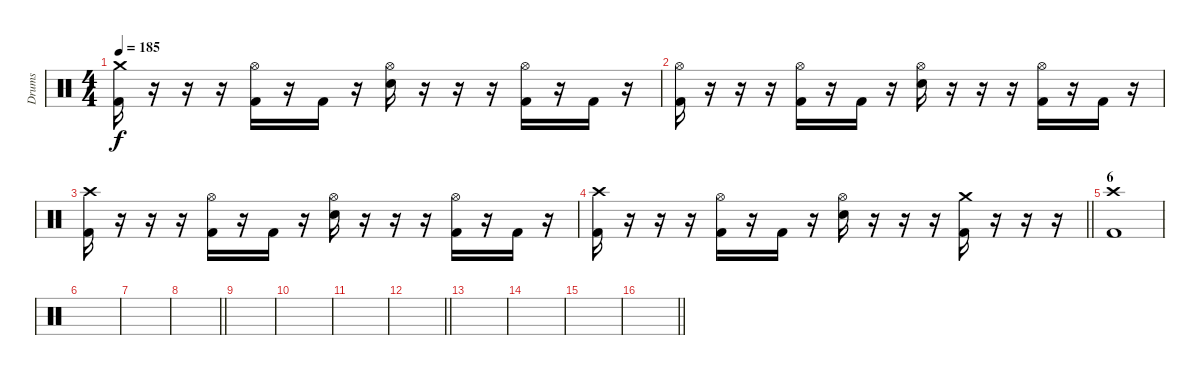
\track ("Drums" "Drums") {instrument percussion}
\staff {score}
\articulation defaults
\ts (4 4)
\tempo 185
\clef neutral
\ks c
("Crash medium (hit)" "Kick (hit) 2").16{dy f} r.16 r.16 r.16 ("Hi-Hat (open)" "Kick (hit) 2").16 r.16 "Kick (hit) 2".16 r.16 ("Hi-Hat (open)" "Electric Snare (hit)").16 r.16 r.16 r.16 ("Hi-Hat (open)" "Kick (hit) 2").16 r.16 "Kick (hit) 2".16 r.16 |
("Hi-Hat (open)" "Kick (hit) 2").16 r.16 r.16 r.16 ("Hi-Hat (open)" "Kick (hit) 2").16 r.16 "Kick (hit) 2".16 r.16 ("Hi-Hat (open)" "Electric Snare (hit)").16 r.16 r.16 r.16 ("Hi-Hat (open)" "Kick (hit) 2").16 r.16 "Kick (hit) 2".16 r.16 |
("Crash high (hit)" "Kick (hit) 2").16 r.16 r.16 r.16 ("Hi-Hat (open)" "Kick (hit) 2").16 r.16 "Kick (hit) 2".16 r.16 ("Hi-Hat (open)" "Electric Snare (hit)").16 r.16 r.16 r.16 ("Hi-Hat (open)" "Kick (hit) 2").16 r.16 "Kick (hit) 2".16 r.16 |
\barLineRight lightlight
("Crash high (hit)" "Kick (hit) 2").16 r.16 r.16 r.16 ("Hi-Hat (open)" "Kick (hit) 2").16 r.16 "Kick (hit) 2".16 r.16 ("Hi-Hat (open)" "Electric Snare (hit)").16 r.16 r.16 r.16 ("Crash medium (hit)" "Kick (hit) 2").16 r.16 r.16 r.16 |
\section ("" "6")
("Crash high (hit)" "Kick (hit) 2").1 |
|
|
\barLineRight lightlight
|
|
|
|
\barLineRight lightlight
|
\section ("" "")
|
|
|
\barLineRight lightlight
